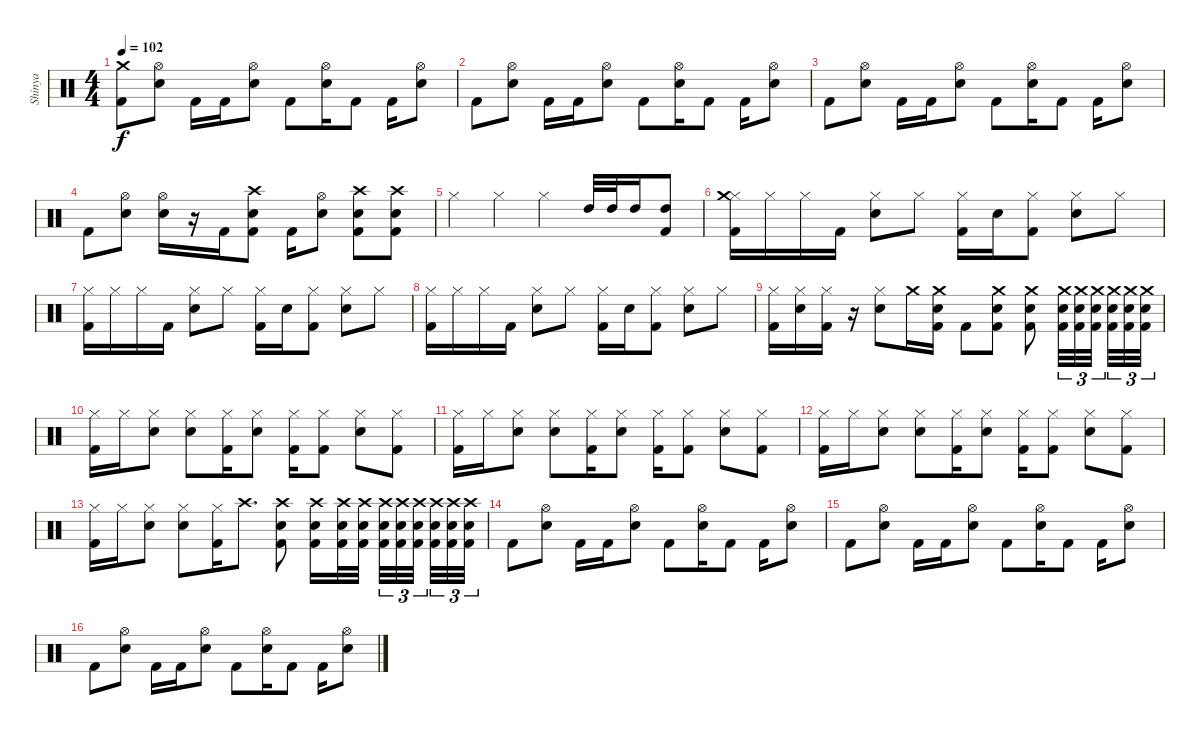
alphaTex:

\track ("Shinya" "Shinya") {instrument percussion}
\staff {score}
\articulation defaults
\ts (4 4)
\tempo 102
\clef neutral
\ks c
("Crash medium (hit)" "Kick (hit) 2").8{dy f} ("Hi-Hat (open)" "Electric Snare (hit)").8 "Kick (hit) 2".16 "Kick (hit) 2".16 ("Hi-Hat (open)" "Electric Snare (hit)").8 "Kick (hit) 2".8 ("Hi-Hat (open)" "Electric Snare (hit)").16 "Kick (hit) 2".8 "Kick (hit) 2".16 ("Hi-Hat (open)" "Electric Snare (hit)").8 |
"Kick (hit) 2".8 ("Hi-Hat (open)" "Electric Snare (hit)").8 "Kick (hit) 2".16 "Kick (hit) 2".16 ("Hi-Hat (open)" "Electric Snare (hit)").8 "Kick (hit) 2".8 ("Hi-Hat (open)" "Electric Snare (hit)").16 "Kick (hit) 2".8 "Kick (hit) 2".16 ("Hi-Hat (open)" "Electric Snare (hit)").8 |
"Kick (hit) 2".8 ("Hi-Hat (open)" "Electric Snare (hit)").8 "Kick (hit) 2".16 "Kick (hit) 2".16 ("Hi-Hat (open)" "Electric Snare (hit)").8 "Kick (hit) 2".8 ("Hi-Hat (open)" "Electric Snare (hit)").16 "Kick (hit) 2".8 "Kick (hit) 2".16 ("Hi-Hat (open)" "Electric Snare (hit)").8 |
"Kick (hit) 2".8 ("Hi-Hat (open)" "Electric Snare (hit)").8 ("Hi-Hat (open)" "Electric Snare (hit)").16 r.16 "Kick (hit) 2".16 ("Crash high (hit)" "Electric Snare (hit)" "Kick (hit) 2").8 "Kick (hit) 2".16 ("Hi-Hat (open)" "Electric Snare (hit)").8 ("Crash high (hit)" "Electric Snare (hit)" "Kick (hit) 2").8 ("Crash high (hit)" "Electric Snare (hit)" "Kick (hit) 2").8 |
"Hi-Hat (closed)".4 "Hi-Hat (closed)".4 "Hi-Hat (closed)".4 "High Tom (hit)".32 "High Tom (hit)".32 "High Tom (hit)".16 ("High Tom (hit)" "Kick (hit) 2").8 |
("Hi-Hat (closed)" "Crash medium (hit)" "Kick (hit) 2").16 "Hi-Hat (closed)".16 "Hi-Hat (closed)".16 "Kick (hit) 2".16 ("Hi-Hat (closed)" "Electric Snare (hit)").8 "Hi-Hat (closed)".8 ("Hi-Hat (closed)" "Kick (hit) 2").16 "Electric Snare (hit)".16 ("Hi-Hat (closed)" "Kick (hit) 2").8 ("Hi-Hat (closed)" "Electric Snare (hit)").8 "Hi-Hat (closed)".8 |
("Hi-Hat (closed)" "Kick (hit) 2").16 "Hi-Hat (closed)".16 "Hi-Hat (closed)".16 "Kick (hit) 2".16 ("Hi-Hat (closed)" "Electric Snare (hit)").8 "Hi-Hat (closed)".8 ("Hi-Hat (closed)" "Kick (hit) 2").16 "Electric Snare (hit)".16 ("Hi-Hat (closed)" "Kick (hit) 2").8 ("Hi-Hat (closed)" "Electric Snare (hit)").8 "Hi-Hat (closed)".8 |
("Hi-Hat (closed)" "Kick (hit) 2").16 "Hi-Hat (closed)".16 "Hi-Hat (closed)".16 "Kick (hit) 2".16 ("Hi-Hat (closed)" "Electric Snare (hit)").8 "Hi-Hat (closed)".8 ("Hi-Hat (closed)" "Kick (hit) 2").16 "Electric Snare (hit)".16 ("Hi-Hat (closed)" "Kick (hit) 2").8 ("Hi-Hat (closed)" "Electric Snare (hit)").8 "Hi-Hat (closed)".8 |
("Hi-Hat (closed)" "Kick (hit) 2").16 ("Hi-Hat (closed)" "Electric Snare (hit)").16 ("Hi-Hat (closed)" "Kick (hit) 2").16 r.16 ("Hi-Hat (closed)" "Electric Snare (hit)").8 "Crash medium (hit)".16 ("Crash medium (hit)" "Electric Snare (hit)" "Kick (hit) 2").16 "Kick (hit) 2".8 ("Crash medium (hit)" "Electric Snare (hit)" "Kick (hit) 2").8 ("Crash medium (hit)" "Electric Snare (hit)" "Kick (hit) 2").8 ("Crash medium (hit)" "Electric Snare (hit)" "Kick (hit) 2").32{tu (3 2)} ("Crash medium (hit)" "Electric Snare (hit)" "Kick (hit) 2").32{tu (3 2)} ("Crash medium (hit)" "Electric Snare (hit)" "Kick (hit) 2").32{tu (3 2) beam splitsecondary} ("Crash medium (hit)" "Electric Snare (hit)" "Kick (hit) 2").32{tu (3 2)} ("Crash medium (hit)" "Electric Snare (hit)" "Kick (hit) 2").32{tu (3 2)} ("Crash medium (hit)" "Electric Snare (hit)" "Kick (hit) 2").32{tu (3 2)} |
("Hi-Hat (closed)" "Kick (hit) 2").16 "Hi-Hat (closed)".16 ("Hi-Hat (closed)" "Electric Snare (hit)").8 ("Hi-Hat (closed)" "Electric Snare (hit)").8 ("Hi-Hat (closed)" "Kick (hit) 2").16 ("Hi-Hat (closed)" "Electric Snare (hit)").8 ("Hi-Hat (closed)" "Kick (hit) 2").16 ("Hi-Hat (closed)" "Kick (hit) 2").8 ("Hi-Hat (closed)" "Electric Snare (hit)").8 ("Hi-Hat (closed)" "Kick (hit) 2").8 |
("Hi-Hat (closed)" "Kick (hit) 2").16 "Hi-Hat (closed)".16 ("Hi-Hat (closed)" "Electric Snare (hit)").8 ("Hi-Hat (closed)" "Electric Snare (hit)").8 ("Hi-Hat (closed)" "Kick (hit) 2").16 ("Hi-Hat (closed)" "Electric Snare (hit)").8 ("Hi-Hat (closed)" "Kick (hit) 2").16 ("Hi-Hat (closed)" "Kick (hit) 2").8 ("Hi-Hat (closed)" "Electric Snare (hit)").8 ("Hi-Hat (closed)" "Kick (hit) 2").8 |
("Hi-Hat (closed)" "Kick (hit) 2").16 "Hi-Hat (closed)".16 ("Hi-Hat (closed)" "Electric Snare (hit)").8 ("Hi-Hat (closed)" "Electric Snare (hit)").8 ("Hi-Hat (closed)" "Kick (hit) 2").16 ("Hi-Hat (closed)" "Electric Snare (hit)").8 ("Hi-Hat (closed)" "Kick (hit) 2").16 ("Hi-Hat (closed)" "Kick (hit) 2").8 ("Hi-Hat (closed)" "Electric Snare (hit)").8 ("Hi-Hat (closed)" "Kick (hit) 2").8 |
("Hi-Hat (closed)" "Kick (hit) 2").16 "Hi-Hat (closed)".16 ("Hi-Hat (closed)" "Electric Snare (hit)").8 ("Hi-Hat (closed)" "Electric Snare (hit)").8 ("Hi-Hat (closed)" "Kick (hit) 2").16 "Crash high (hit)".8{d} ("Crash high (hit)" "Electric Snare (hit)" "Kick (hit) 2").8 ("Crash high (hit)" "Electric Snare (hit)" "Kick (hit) 2").16 ("Crash high (hit)" "Electric Snare (hit)" "Kick (hit) 2").32 ("Crash high (hit)" "Electric Snare (hit)" "Kick (hit) 2").32{beam splitsecondary} ("Crash high (hit)" "Electric Snare (hit)" "Kick (hit) 2").32{tu (3 2)} ("Crash high (hit)" "Electric Snare (hit)" "Kick (hit) 2").32{tu (3 2)} ("Crash high (hit)" "Electric Snare (hit)" "Kick (hit) 2").32{tu (3 2) beam splitsecondary} ("Crash high (hit)" "Electric Snare (hit)" "Kick (hit) 2").32{tu (3 2)} ("Crash high (hit)" "Electric Snare (hit)" "Kick (hit) 2").32{tu (3 2)} ("Crash high (hit)" "Electric Snare (hit)" "Kick (hit) 2").32{tu (3 2)} |
"Kick (hit) 2".8 ("Hi-Hat (open)" "Electric Snare (hit)").8 "Kick (hit) 2".16 "Kick (hit) 2".16 ("Hi-Hat (open)" "Electric Snare (hit)").8 "Kick (hit) 2".8 ("Hi-Hat (open)" "Electric Snare (hit)").16 "Kick (hit) 2".8 "Kick (hit) 2".16 ("Hi-Hat (open)" "Electric Snare (hit)").8 |
"Kick (hit) 2".8 ("Hi-Hat (open)" "Electric Snare (hit)").8 "Kick (hit) 2".16 "Kick (hit) 2".16 ("Hi-Hat (open)" "Electric Snare (hit)").8 "Kick (hit) 2".8 ("Hi-Hat (open)" "Electric Snare (hit)").16 "Kick (hit) 2".8 "Kick (hit) 2".16 ("Hi-Hat (open)" "Electric Snare (hit)").8 |
"Kick (hit) 2".8 ("Hi-Hat (open)" "Electric Snare (hit)").8 "Kick (hit) 2".16 "Kick (hit) 2".16 ("Hi-Hat (open)" "Electric Snare (hit)").8 "Kick (hit) 2".8 ("Hi-Hat (open)" "Electric Snare (hit)").16 "Kick (hit) 2".8 "Kick (hit) 2".16 ("Hi-Hat (open)" "Electric Snare (hit)").8
